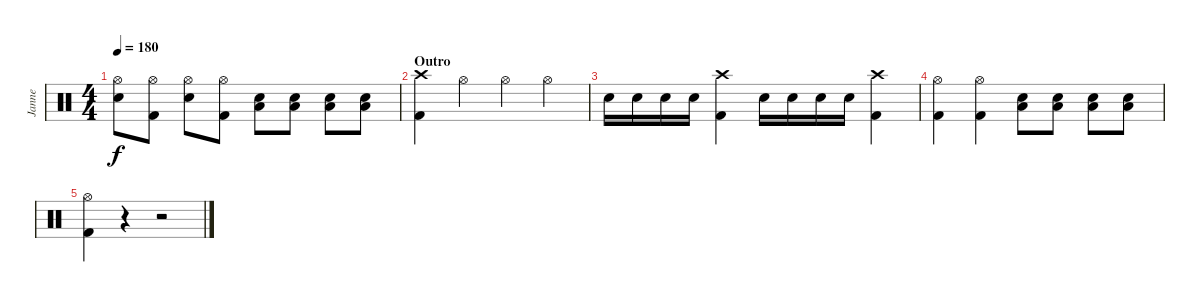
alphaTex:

\track ("Janne" "Janne") {instrument percussion}
\staff {score}
\articulation defaults
\ts (4 4)
\tempo 180
\clef neutral
\ks c
("Hi-Hat (open)" "Electric Snare (hit)").8{dy f} ("Hi-Hat (open)" "Kick (hit) 2").8 ("Hi-Hat (open)" "Electric Snare (hit)").8 ("Hi-Hat (open)" "Kick (hit) 2").8 ("Low Floor Tom (hit)" "Electric Snare (hit)").8 ("Low Floor Tom (hit)" "Electric Snare (hit)").8 ("Low Floor Tom (hit)" "Electric Snare (hit)").8 ("Low Floor Tom (hit)" "Electric Snare (hit)").8 |
\section ("" "Outro")
("Crash high (hit)" "Kick (hit) 2").4 "Hi-Hat (open)".4 "Hi-Hat (open)".4 "Hi-Hat (open)".4 |
"Electric Snare (hit)".16 "Electric Snare (hit)".16 "Electric Snare (hit)".16 "Electric Snare (hit)".16 ("Crash high (hit)" "Kick (hit) 2").4 "Electric Snare (hit)".16 "Electric Snare (hit)".16 "Electric Snare (hit)".16 "Electric Snare (hit)".16 ("Crash high (hit)" "Kick (hit) 2").4 |
("Hi-Hat (open)" "Kick (hit) 2").4 ("Hi-Hat (open)" "Kick (hit) 2").4 ("Low Floor Tom (hit)" "Electric Snare (hit)").8 ("Low Floor Tom (hit)" "Electric Snare (hit)").8 ("Low Floor Tom (hit)" "Electric Snare (hit)").8 ("Low Floor Tom (hit)" "Electric Snare (hit)").8 |
("Hi-Hat (open)" "Kick (hit) 2").4 r.4 r.2
